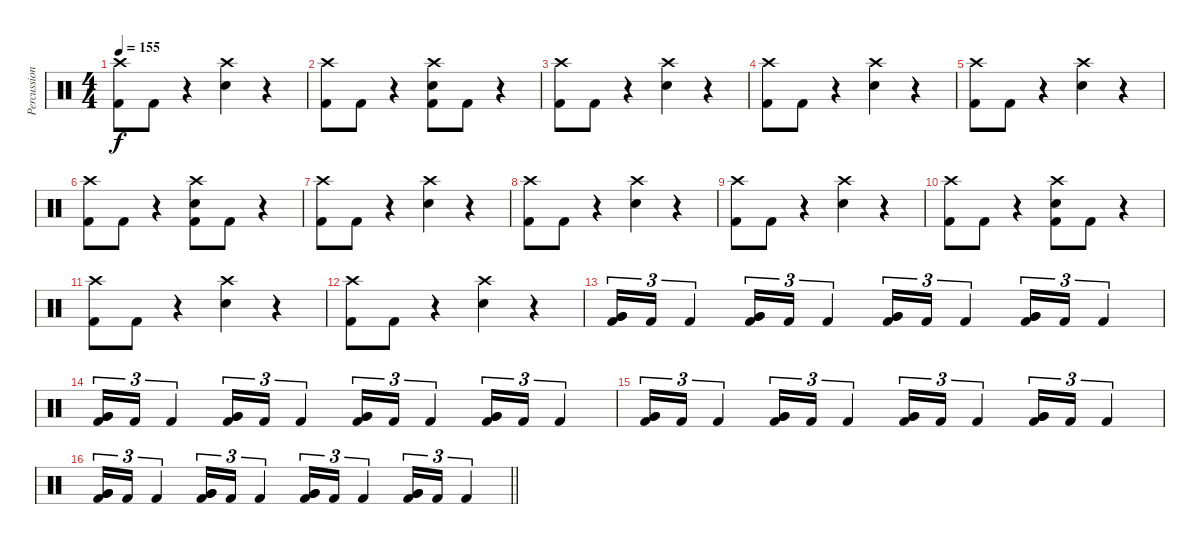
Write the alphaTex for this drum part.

\track ("Percussion" "Percussion") {instrument percussion}
\staff {score}
\articulation defaults
\ts (4 4)
\tempo 155
\clef neutral
\ks c
("Crash high (hit)" "Kick (hit) 2").8{dy f} "Kick (hit) 2".8 r.4 ("Crash high (hit)" "Electric Snare (hit)").4 r.4 |
("Crash high (hit)" "Kick (hit) 2").8 "Kick (hit) 2".8 r.4 ("Crash high (hit)" "Electric Snare (hit)" "Kick (hit) 2").8 "Kick (hit) 2".8 r.4 |
("Crash high (hit)" "Kick (hit) 2").8 "Kick (hit) 2".8 r.4 ("Crash high (hit)" "Electric Snare (hit)").4 r.4 |
("Crash high (hit)" "Kick (hit) 2").8 "Kick (hit) 2".8 r.4 ("Crash high (hit)" "Electric Snare (hit)").4 r.4 |
("Crash high (hit)" "Kick (hit) 2").8 "Kick (hit) 2".8 r.4 ("Crash high (hit)" "Electric Snare (hit)").4 r.4 |
("Crash high (hit)" "Kick (hit) 2").8 "Kick (hit) 2".8 r.4 ("Crash high (hit)" "Electric Snare (hit)" "Kick (hit) 2").8 "Kick (hit) 2".8 r.4 |
("Crash high (hit)" "Kick (hit) 2").8 "Kick (hit) 2".8 r.4 ("Crash high (hit)" "Electric Snare (hit)").4 r.4 |
("Crash high (hit)" "Kick (hit) 2").8 "Kick (hit) 2".8 r.4 ("Crash high (hit)" "Electric Snare (hit)").4 r.4 |
("Crash high (hit)" "Kick (hit) 2").8 "Kick (hit) 2".8 r.4 ("Crash high (hit)" "Electric Snare (hit)").4 r.4 |
("Crash high (hit)" "Kick (hit) 2").8 "Kick (hit) 2".8 r.4 ("Crash high (hit)" "Electric Snare (hit)" "Kick (hit) 2").8 "Kick (hit) 2".8 r.4 |
("Crash high (hit)" "Kick (hit) 2").8 "Kick (hit) 2".8 r.4 ("Crash high (hit)" "Electric Snare (hit)").4 r.4 |
("Crash high (hit)" "Kick (hit) 2").8 "Kick (hit) 2".8 r.4 ("Crash high (hit)" "Electric Snare (hit)").4 r.4 |
("Very Low Tom (hit)" "Very Low Tom (hit)" "Kick (hit) 2").16{tu (3 2) bd 60} "Kick (hit) 2".16{tu (3 2)} "Kick (hit) 2".4{tu (3 2)} ("Very Low Tom (hit)" "Very Low Tom (hit)" "Kick (hit) 2").16{tu (3 2) bd 60} "Kick (hit) 2".16{tu (3 2)} "Kick (hit) 2".4{tu (3 2)} ("Very Low Tom (hit)" "Very Low Tom (hit)" "Kick (hit) 2").16{tu (3 2) bd 60} "Kick (hit) 2".16{tu (3 2)} "Kick (hit) 2".4{tu (3 2)} ("Very Low Tom (hit)" "Very Low Tom (hit)" "Kick (hit) 2").16{tu (3 2) bd 60} "Kick (hit) 2".16{tu (3 2)} "Kick (hit) 2".4{tu (3 2)} |
("Very Low Tom (hit)" "Very Low Tom (hit)" "Kick (hit) 2").16{tu (3 2) bd 60} "Kick (hit) 2".16{tu (3 2)} "Kick (hit) 2".4{tu (3 2)} ("Very Low Tom (hit)" "Very Low Tom (hit)" "Kick (hit) 2").16{tu (3 2) bd 60} "Kick (hit) 2".16{tu (3 2)} "Kick (hit) 2".4{tu (3 2)} ("Very Low Tom (hit)" "Very Low Tom (hit)" "Kick (hit) 2").16{tu (3 2) bd 60} "Kick (hit) 2".16{tu (3 2)} "Kick (hit) 2".4{tu (3 2)} ("Very Low Tom (hit)" "Very Low Tom (hit)" "Kick (hit) 2").16{tu (3 2) bd 60} "Kick (hit) 2".16{tu (3 2)} "Kick (hit) 2".4{tu (3 2)} |
("Very Low Tom (hit)" "Very Low Tom (hit)" "Kick (hit) 2").16{tu (3 2) bd 60} "Kick (hit) 2".16{tu (3 2)} "Kick (hit) 2".4{tu (3 2)} ("Very Low Tom (hit)" "Very Low Tom (hit)" "Kick (hit) 2").16{tu (3 2) bd 60} "Kick (hit) 2".16{tu (3 2)} "Kick (hit) 2".4{tu (3 2)} ("Very Low Tom (hit)" "Very Low Tom (hit)" "Kick (hit) 2").16{tu (3 2) bd 60} "Kick (hit) 2".16{tu (3 2)} "Kick (hit) 2".4{tu (3 2)} ("Very Low Tom (hit)" "Very Low Tom (hit)" "Kick (hit) 2").16{tu (3 2) bd 60} "Kick (hit) 2".16{tu (3 2)} "Kick (hit) 2".4{tu (3 2)} |
\barLineRight lightlight
("Very Low Tom (hit)" "Very Low Tom (hit)" "Kick (hit) 2").16{tu (3 2) bd 60} "Kick (hit) 2".16{tu (3 2)} "Kick (hit) 2".4{tu (3 2)} ("Very Low Tom (hit)" "Very Low Tom (hit)" "Kick (hit) 2").16{tu (3 2) bd 60} "Kick (hit) 2".16{tu (3 2)} "Kick (hit) 2".4{tu (3 2)} ("Very Low Tom (hit)" "Very Low Tom (hit)" "Kick (hit) 2").16{tu (3 2) bd 60} "Kick (hit) 2".16{tu (3 2)} "Kick (hit) 2".4{tu (3 2)} ("Very Low Tom (hit)" "Very Low Tom (hit)" "Kick (hit) 2").16{tu (3 2) bd 60} "Kick (hit) 2".16{tu (3 2)} "Kick (hit) 2".4{tu (3 2)}
